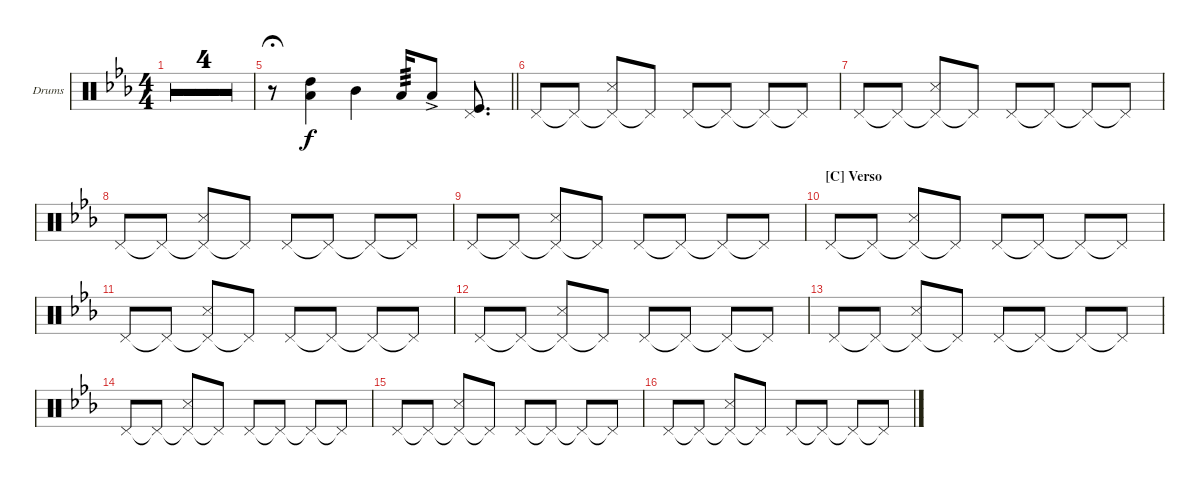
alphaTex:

\defaultSystemsLayout 4
\bracketExtendMode groupsimilarinstruments
\firstSystemTrackNameOrientation horizontal
\otherSystemsTrackNameOrientation horizontal
\track ("Drum" "Drums") {multiBarRest instrument percussion}
\staff {score}
\articulation defaults
\ts (4 4)
\tempo 65
\clef neutral
\ks cminor
|
|
|
|
\barLineRight lightlight
r.8{fermata (medium 0.5)} ("High Tom (hit)" "Low Tom (hit)").4 "Mid Tom (hit)".4 "Low Tom (hit)".16{tp 3} "Low Tom (hit)"{ac}.8 ("Kick (hit)" "Pedal Hi-Hat (hit)").8{d} |
"Pedal Hi-Hat (hit)".8 "Pedal Hi-Hat (hit)"{t}.8 ("Pedal Hi-Hat (hit)"{t} "Snare (side stick) 3").8 "Pedal Hi-Hat (hit)"{t}.8 "Pedal Hi-Hat (hit)".8 "Pedal Hi-Hat (hit)"{t}.8 "Pedal Hi-Hat (hit)"{t}.8 "Pedal Hi-Hat (hit)"{t}.8 |
"Pedal Hi-Hat (hit)".8 "Pedal Hi-Hat (hit)"{t}.8 ("Pedal Hi-Hat (hit)"{t} "Snare (side stick) 3").8 "Pedal Hi-Hat (hit)"{t}.8 "Pedal Hi-Hat (hit)".8 "Pedal Hi-Hat (hit)"{t}.8 "Pedal Hi-Hat (hit)"{t}.8 "Pedal Hi-Hat (hit)"{t}.8 |
"Pedal Hi-Hat (hit)".8 "Pedal Hi-Hat (hit)"{t}.8 ("Pedal Hi-Hat (hit)"{t} "Snare (side stick) 3").8 "Pedal Hi-Hat (hit)"{t}.8 "Pedal Hi-Hat (hit)".8 "Pedal Hi-Hat (hit)"{t}.8 "Pedal Hi-Hat (hit)"{t}.8 "Pedal Hi-Hat (hit)"{t}.8 |
"Pedal Hi-Hat (hit)".8 "Pedal Hi-Hat (hit)"{t}.8 ("Pedal Hi-Hat (hit)"{t} "Snare (side stick) 3").8 "Pedal Hi-Hat (hit)"{t}.8 "Pedal Hi-Hat (hit)".8 "Pedal Hi-Hat (hit)"{t}.8 "Pedal Hi-Hat (hit)"{t}.8 "Pedal Hi-Hat (hit)"{t}.8 |
\section ("C" "Verso")
"Pedal Hi-Hat (hit)".8 "Pedal Hi-Hat (hit)"{t}.8 ("Pedal Hi-Hat (hit)"{t} "Snare (side stick) 3").8 "Pedal Hi-Hat (hit)"{t}.8 "Pedal Hi-Hat (hit)".8 "Pedal Hi-Hat (hit)"{t}.8 "Pedal Hi-Hat (hit)"{t}.8 "Pedal Hi-Hat (hit)"{t}.8 |
"Pedal Hi-Hat (hit)".8 "Pedal Hi-Hat (hit)"{t}.8 ("Pedal Hi-Hat (hit)"{t} "Snare (side stick) 3").8 "Pedal Hi-Hat (hit)"{t}.8 "Pedal Hi-Hat (hit)".8 "Pedal Hi-Hat (hit)"{t}.8 "Pedal Hi-Hat (hit)"{t}.8 "Pedal Hi-Hat (hit)"{t}.8 |
"Pedal Hi-Hat (hit)".8 "Pedal Hi-Hat (hit)"{t}.8 ("Pedal Hi-Hat (hit)"{t} "Snare (side stick) 3").8 "Pedal Hi-Hat (hit)"{t}.8 "Pedal Hi-Hat (hit)".8 "Pedal Hi-Hat (hit)"{t}.8 "Pedal Hi-Hat (hit)"{t}.8 "Pedal Hi-Hat (hit)"{t}.8 |
"Pedal Hi-Hat (hit)".8 "Pedal Hi-Hat (hit)"{t}.8 ("Pedal Hi-Hat (hit)"{t} "Snare (side stick) 3").8 "Pedal Hi-Hat (hit)"{t}.8 "Pedal Hi-Hat (hit)".8 "Pedal Hi-Hat (hit)"{t}.8 "Pedal Hi-Hat (hit)"{t}.8 "Pedal Hi-Hat (hit)"{t}.8 |
"Pedal Hi-Hat (hit)".8 "Pedal Hi-Hat (hit)"{t}.8 ("Pedal Hi-Hat (hit)"{t} "Snare (side stick) 3").8 "Pedal Hi-Hat (hit)"{t}.8 "Pedal Hi-Hat (hit)".8 "Pedal Hi-Hat (hit)"{t}.8 "Pedal Hi-Hat (hit)"{t}.8 "Pedal Hi-Hat (hit)"{t}.8 |
"Pedal Hi-Hat (hit)".8 "Pedal Hi-Hat (hit)"{t}.8 ("Pedal Hi-Hat (hit)"{t} "Snare (side stick) 3").8 "Pedal Hi-Hat (hit)"{t}.8 "Pedal Hi-Hat (hit)".8 "Pedal Hi-Hat (hit)"{t}.8 "Pedal Hi-Hat (hit)"{t}.8 "Pedal Hi-Hat (hit)"{t}.8 |
"Pedal Hi-Hat (hit)".8 "Pedal Hi-Hat (hit)"{t}.8 ("Pedal Hi-Hat (hit)"{t} "Snare (side stick) 3").8 "Pedal Hi-Hat (hit)"{t}.8 "Pedal Hi-Hat (hit)".8 "Pedal Hi-Hat (hit)"{t}.8 "Pedal Hi-Hat (hit)"{t}.8 "Pedal Hi-Hat (hit)"{t}.8
